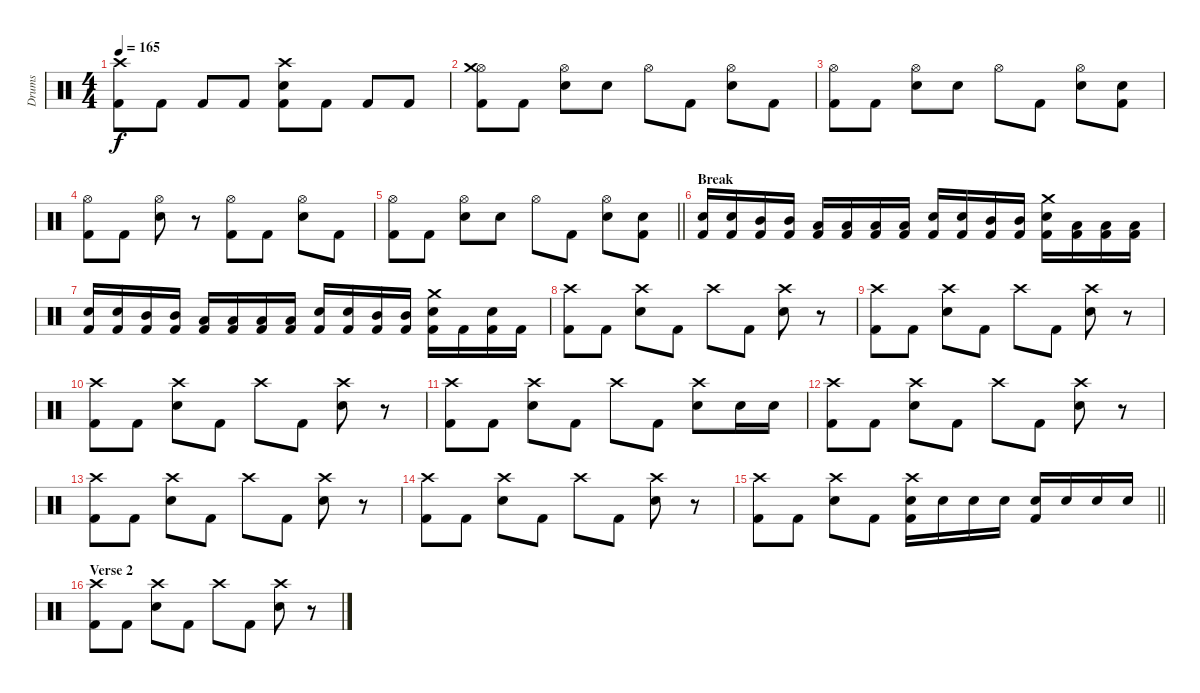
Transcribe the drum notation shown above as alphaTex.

\track ("Drums" "Drums") {instrument percussion}
\staff {score}
\articulation defaults
\ts (4 4)
\tempo 165
\clef neutral
\ks c
("Crash high (hit)" "Kick (hit) 2").8{dy f} "Kick (hit) 2".8 "Kick (hit) 2".8 "Kick (hit) 2".8 ("Crash high (hit)" "Snare (hit) 2" "Kick (hit) 2").8 "Kick (hit) 2".8 "Kick (hit) 2".8 "Kick (hit) 2".8 |
("Hi-Hat (open)" "Crash medium (hit)" "Kick (hit) 2").8 "Kick (hit) 2".8 ("Hi-Hat (open)" "Snare (hit) 2").8 "Snare (hit) 2".8 "Hi-Hat (open)".8 "Kick (hit) 2".8 ("Hi-Hat (open)" "Snare (hit) 2").8 "Kick (hit) 2".8 |
("Hi-Hat (open)" "Kick (hit) 2").8 "Kick (hit) 2".8 ("Hi-Hat (open)" "Snare (hit) 2").8 "Snare (hit) 2".8 "Hi-Hat (open)".8 "Kick (hit) 2".8 ("Hi-Hat (open)" "Snare (hit) 2").8 ("Snare (hit) 2" "Kick (hit) 2").8 |
("Hi-Hat (open)" "Kick (hit) 2").8 "Kick (hit) 2".8 ("Hi-Hat (open)" "Snare (hit) 2").8 r.8 ("Hi-Hat (open)" "Kick (hit) 2").8 "Kick (hit) 2".8 ("Hi-Hat (open)" "Snare (hit) 2").8 "Kick (hit) 2".8 |
\barLineRight lightlight
("Hi-Hat (open)" "Kick (hit) 2").8 "Kick (hit) 2".8 ("Hi-Hat (open)" "Snare (hit) 2").8 "Snare (hit) 2".8 "Hi-Hat (open)".8 "Kick (hit) 2".8 ("Hi-Hat (open)" "Snare (hit) 2").8 ("Snare (hit) 2" "Kick (hit) 2").8 |
\section ("" "Break")
("Snare (hit) 2" "Kick (hit) 2").16 ("Snare (hit) 2" "Kick (hit) 2").16 ("Mid Tom (hit)" "Kick (hit) 2").16 ("Mid Tom (hit)" "Kick (hit) 2").16 ("Low Tom (hit)" "Kick (hit) 2").16 ("Low Tom (hit)" "Kick (hit) 2").16 ("Low Floor Tom (hit)" "Kick (hit) 2").16 ("Low Floor Tom (hit)" "Kick (hit) 2").16 ("Snare (hit) 2" "Kick (hit) 2").16 ("Snare (hit) 2" "Kick (hit) 2").16 ("Mid Tom (hit)" "Kick (hit) 2").16 ("Mid Tom (hit)" "Kick (hit) 2").16 ("Crash medium (hit)" "Snare (hit) 2" "Kick (hit) 2").16 ("Low Tom (hit)" "Kick (hit) 2").16 ("Low Tom (hit)" "Kick (hit) 2").16 ("Low Tom (hit)" "Kick (hit) 2").16 |
("Snare (hit) 2" "Kick (hit) 2").16 ("Snare (hit) 2" "Kick (hit) 2").16 ("Mid Tom (hit)" "Kick (hit) 2").16 ("Mid Tom (hit)" "Kick (hit) 2").16 ("Low Tom (hit)" "Kick (hit) 2").16 ("Low Tom (hit)" "Kick (hit) 2").16 ("Low Floor Tom (hit)" "Kick (hit) 2").16 ("Low Floor Tom (hit)" "Kick (hit) 2").16 ("Snare (hit) 2" "Kick (hit) 2").16 ("Snare (hit) 2" "Kick (hit) 2").16 ("Mid Tom (hit)" "Kick (hit) 2").16 ("Mid Tom (hit)" "Kick (hit) 2").16 ("Crash medium (hit)" "Snare (hit) 2" "Kick (hit) 2").16 "Kick (hit) 2".16 ("Snare (hit) 2" "Kick (hit) 2").16 "Kick (hit) 2".16 |
("Crash high (hit)" "Kick (hit) 2").8 "Kick (hit) 2".8 ("Crash high (hit)" "Snare (hit) 2").8 "Kick (hit) 2".8 "Crash high (hit)".8 "Kick (hit) 2".8 ("Crash high (hit)" "Snare (hit) 2").8 r.8 |
("Crash high (hit)" "Kick (hit) 2").8 "Kick (hit) 2".8 ("Crash high (hit)" "Snare (hit) 2").8 "Kick (hit) 2".8 "Crash high (hit)".8 "Kick (hit) 2".8 ("Crash high (hit)" "Snare (hit) 2").8 r.8 |
("Crash high (hit)" "Kick (hit) 2").8 "Kick (hit) 2".8 ("Crash high (hit)" "Snare (hit) 2").8 "Kick (hit) 2".8 "Crash high (hit)".8 "Kick (hit) 2".8 ("Crash high (hit)" "Snare (hit) 2").8 r.8 |
("Crash high (hit)" "Kick (hit) 2").8 "Kick (hit) 2".8 ("Crash high (hit)" "Snare (hit) 2").8 "Kick (hit) 2".8 "Crash high (hit)".8 "Kick (hit) 2".8 ("Crash high (hit)" "Snare (hit) 2").8 "Snare (hit) 2".16 "Snare (hit) 2".16 |
("Crash high (hit)" "Kick (hit) 2").8 "Kick (hit) 2".8 ("Crash high (hit)" "Snare (hit) 2").8 "Kick (hit) 2".8 "Crash high (hit)".8 "Kick (hit) 2".8 ("Crash high (hit)" "Snare (hit) 2").8 r.8 |
("Crash high (hit)" "Kick (hit) 2").8 "Kick (hit) 2".8 ("Crash high (hit)" "Snare (hit) 2").8 "Kick (hit) 2".8 "Crash high (hit)".8 "Kick (hit) 2".8 ("Crash high (hit)" "Snare (hit) 2").8 r.8 |
("Crash high (hit)" "Kick (hit) 2").8 "Kick (hit) 2".8 ("Crash high (hit)" "Snare (hit) 2").8 "Kick (hit) 2".8 "Crash high (hit)".8 "Kick (hit) 2".8 ("Crash high (hit)" "Snare (hit) 2").8 r.8 |
\barLineRight lightlight
("Crash high (hit)" "Kick (hit) 2").8 "Kick (hit) 2".8 ("Crash high (hit)" "Snare (hit) 2").8 "Kick (hit) 2".8 ("Crash high (hit)" "Snare (hit) 2" "Kick (hit) 2").16 "Snare (hit) 2".16 "Snare (hit) 2".16 "Snare (hit) 2".16 ("Snare (hit) 2" "Kick (hit) 2").16 "Snare (hit) 2".16 "Snare (hit) 2".16 "Snare (hit) 2".16 |
\section ("" "Verse 2")
("Crash high (hit)" "Kick (hit) 2").8 "Kick (hit) 2".8 ("Crash high (hit)" "Snare (hit) 2").8 "Kick (hit) 2".8 "Crash high (hit)".8 "Kick (hit) 2".8 ("Crash high (hit)" "Snare (hit) 2").8 r.8
